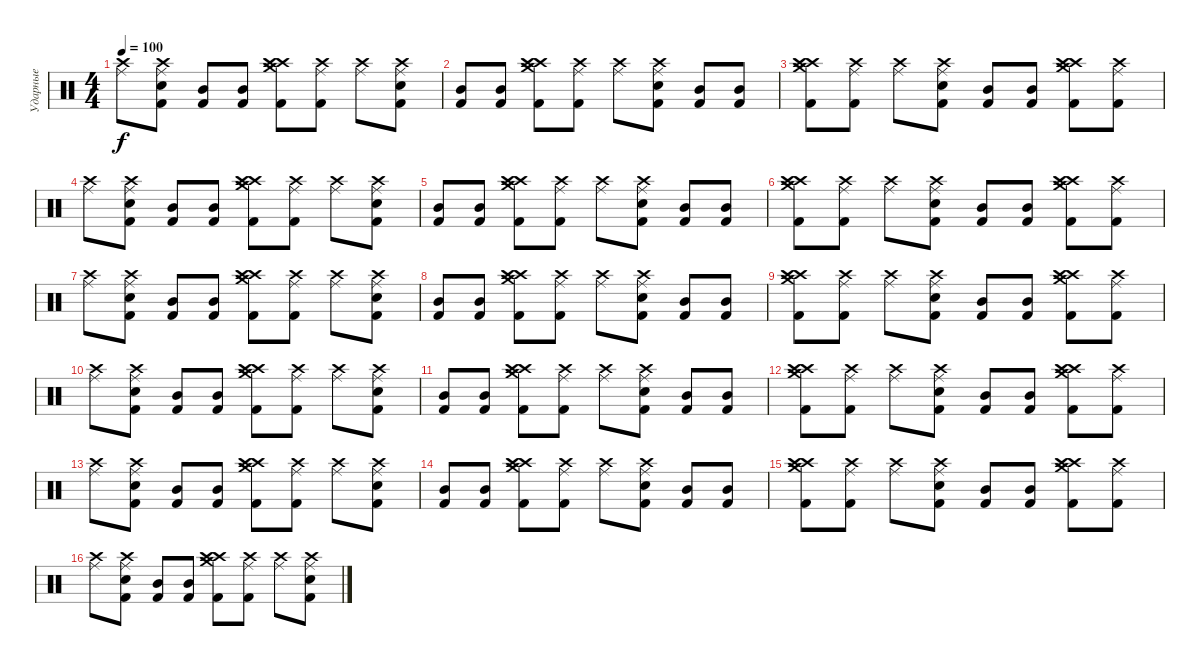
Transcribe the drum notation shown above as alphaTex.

\track ("Ударные" "Ударные") {instrument percussion}
\staff {score}
\articulation defaults
\ts (4 4)
\tempo 100
\clef neutral
\ks c
("Crash high (hit)" "Ride (middle)").8{dy f} ("Crash high (hit)" "Electric Snare (hit)" "Kick (hit) 2" "Ride (middle)").8 ("Kick (hit) 2" "Mid Tom (hit)").8 ("Kick (hit) 2" "Mid Tom (hit)").8 ("Crash high (hit)" "Crash medium (hit)" "Crash high (hit)" "Kick (hit) 2").8 ("Crash high (hit)" "Kick (hit) 2" "Ride (middle)").8 ("Crash high (hit)" "Ride (middle)").8 ("Crash high (hit)" "Electric Snare (hit)" "Kick (hit) 2" "Ride (middle)").8 |
("Kick (hit) 2" "Mid Tom (hit)").8 ("Kick (hit) 2" "Mid Tom (hit)").8 ("Crash high (hit)" "Crash medium (hit)" "Crash high (hit)" "Kick (hit) 2").8 ("Crash high (hit)" "Kick (hit) 2" "Ride (middle)").8 ("Crash high (hit)" "Ride (middle)").8 ("Crash high (hit)" "Electric Snare (hit)" "Kick (hit) 2" "Ride (middle)").8 ("Kick (hit) 2" "Mid Tom (hit)").8 ("Kick (hit) 2" "Mid Tom (hit)").8 |
("Crash high (hit)" "Crash medium (hit)" "Crash high (hit)" "Kick (hit) 2").8 ("Crash high (hit)" "Kick (hit) 2" "Ride (middle)").8 ("Crash high (hit)" "Ride (middle)").8 ("Crash high (hit)" "Electric Snare (hit)" "Kick (hit) 2" "Ride (middle)").8 ("Kick (hit) 2" "Mid Tom (hit)").8 ("Kick (hit) 2" "Mid Tom (hit)").8 ("Crash high (hit)" "Crash medium (hit)" "Crash high (hit)" "Kick (hit) 2").8 ("Crash high (hit)" "Kick (hit) 2" "Ride (middle)").8 |
("Crash high (hit)" "Ride (middle)").8 ("Crash high (hit)" "Electric Snare (hit)" "Kick (hit) 2" "Ride (middle)").8 ("Kick (hit) 2" "Mid Tom (hit)").8 ("Kick (hit) 2" "Mid Tom (hit)").8 ("Crash high (hit)" "Crash medium (hit)" "Crash high (hit)" "Kick (hit) 2").8 ("Crash high (hit)" "Kick (hit) 2" "Ride (middle)").8 ("Crash high (hit)" "Ride (middle)").8 ("Crash high (hit)" "Electric Snare (hit)" "Kick (hit) 2" "Ride (middle)").8 |
("Kick (hit) 2" "Mid Tom (hit)").8 ("Kick (hit) 2" "Mid Tom (hit)").8 ("Crash high (hit)" "Crash medium (hit)" "Crash high (hit)" "Kick (hit) 2").8 ("Crash high (hit)" "Kick (hit) 2" "Ride (middle)").8 ("Crash high (hit)" "Ride (middle)").8 ("Crash high (hit)" "Electric Snare (hit)" "Kick (hit) 2" "Ride (middle)").8 ("Kick (hit) 2" "Mid Tom (hit)").8 ("Kick (hit) 2" "Mid Tom (hit)").8 |
("Crash high (hit)" "Crash medium (hit)" "Crash high (hit)" "Kick (hit) 2").8 ("Crash high (hit)" "Kick (hit) 2" "Ride (middle)").8 ("Crash high (hit)" "Ride (middle)").8 ("Crash high (hit)" "Electric Snare (hit)" "Kick (hit) 2" "Ride (middle)").8 ("Kick (hit) 2" "Mid Tom (hit)").8 ("Kick (hit) 2" "Mid Tom (hit)").8 ("Crash high (hit)" "Crash medium (hit)" "Crash high (hit)" "Kick (hit) 2").8 ("Crash high (hit)" "Kick (hit) 2" "Ride (middle)").8 |
("Crash high (hit)" "Ride (middle)").8 ("Crash high (hit)" "Electric Snare (hit)" "Kick (hit) 2" "Ride (middle)").8 ("Kick (hit) 2" "Mid Tom (hit)").8 ("Kick (hit) 2" "Mid Tom (hit)").8 ("Crash high (hit)" "Crash medium (hit)" "Crash high (hit)" "Kick (hit) 2").8 ("Crash high (hit)" "Kick (hit) 2" "Ride (middle)").8 ("Crash high (hit)" "Ride (middle)").8 ("Crash high (hit)" "Electric Snare (hit)" "Kick (hit) 2" "Ride (middle)").8 |
("Kick (hit) 2" "Mid Tom (hit)").8 ("Kick (hit) 2" "Mid Tom (hit)").8 ("Crash high (hit)" "Crash medium (hit)" "Crash high (hit)" "Kick (hit) 2").8 ("Crash high (hit)" "Kick (hit) 2" "Ride (middle)").8 ("Crash high (hit)" "Ride (middle)").8 ("Crash high (hit)" "Electric Snare (hit)" "Kick (hit) 2" "Ride (middle)").8 ("Kick (hit) 2" "Mid Tom (hit)").8 ("Kick (hit) 2" "Mid Tom (hit)").8 |
("Crash high (hit)" "Crash medium (hit)" "Crash high (hit)" "Kick (hit) 2").8 ("Crash high (hit)" "Kick (hit) 2" "Ride (middle)").8 ("Crash high (hit)" "Ride (middle)").8 ("Crash high (hit)" "Electric Snare (hit)" "Kick (hit) 2" "Ride (middle)").8 ("Kick (hit) 2" "Mid Tom (hit)").8 ("Kick (hit) 2" "Mid Tom (hit)").8 ("Crash high (hit)" "Crash medium (hit)" "Crash high (hit)" "Kick (hit) 2").8 ("Crash high (hit)" "Kick (hit) 2" "Ride (middle)").8 |
("Crash high (hit)" "Ride (middle)").8 ("Crash high (hit)" "Electric Snare (hit)" "Kick (hit) 2" "Ride (middle)").8 ("Kick (hit) 2" "Mid Tom (hit)").8 ("Kick (hit) 2" "Mid Tom (hit)").8 ("Crash high (hit)" "Crash medium (hit)" "Crash high (hit)" "Kick (hit) 2").8 ("Crash high (hit)" "Kick (hit) 2" "Ride (middle)").8 ("Crash high (hit)" "Ride (middle)").8 ("Crash high (hit)" "Electric Snare (hit)" "Kick (hit) 2" "Ride (middle)").8 |
("Kick (hit) 2" "Mid Tom (hit)").8 ("Kick (hit) 2" "Mid Tom (hit)").8 ("Crash high (hit)" "Crash medium (hit)" "Crash high (hit)" "Kick (hit) 2").8 ("Crash high (hit)" "Kick (hit) 2" "Ride (middle)").8 ("Crash high (hit)" "Ride (middle)").8 ("Crash high (hit)" "Electric Snare (hit)" "Kick (hit) 2" "Ride (middle)").8 ("Kick (hit) 2" "Mid Tom (hit)").8 ("Kick (hit) 2" "Mid Tom (hit)").8 |
("Crash high (hit)" "Crash medium (hit)" "Crash high (hit)" "Kick (hit) 2").8 ("Crash high (hit)" "Kick (hit) 2" "Ride (middle)").8 ("Crash high (hit)" "Ride (middle)").8 ("Crash high (hit)" "Electric Snare (hit)" "Kick (hit) 2" "Ride (middle)").8 ("Kick (hit) 2" "Mid Tom (hit)").8 ("Kick (hit) 2" "Mid Tom (hit)").8 ("Crash high (hit)" "Crash medium (hit)" "Crash high (hit)" "Kick (hit) 2").8 ("Crash high (hit)" "Kick (hit) 2" "Ride (middle)").8 |
("Crash high (hit)" "Ride (middle)").8 ("Crash high (hit)" "Electric Snare (hit)" "Kick (hit) 2" "Ride (middle)").8 ("Kick (hit) 2" "Mid Tom (hit)").8 ("Kick (hit) 2" "Mid Tom (hit)").8 ("Crash high (hit)" "Crash medium (hit)" "Crash high (hit)" "Kick (hit) 2").8 ("Crash high (hit)" "Kick (hit) 2" "Ride (middle)").8 ("Crash high (hit)" "Ride (middle)").8 ("Crash high (hit)" "Electric Snare (hit)" "Kick (hit) 2" "Ride (middle)").8 |
("Kick (hit) 2" "Mid Tom (hit)").8 ("Kick (hit) 2" "Mid Tom (hit)").8 ("Crash high (hit)" "Crash medium (hit)" "Crash high (hit)" "Kick (hit) 2").8 ("Crash high (hit)" "Kick (hit) 2" "Ride (middle)").8 ("Crash high (hit)" "Ride (middle)").8 ("Crash high (hit)" "Electric Snare (hit)" "Kick (hit) 2" "Ride (middle)").8 ("Kick (hit) 2" "Mid Tom (hit)").8 ("Kick (hit) 2" "Mid Tom (hit)").8 |
("Crash high (hit)" "Crash medium (hit)" "Crash high (hit)" "Kick (hit) 2").8 ("Crash high (hit)" "Kick (hit) 2" "Ride (middle)").8 ("Crash high (hit)" "Ride (middle)").8 ("Crash high (hit)" "Electric Snare (hit)" "Kick (hit) 2" "Ride (middle)").8 ("Kick (hit) 2" "Mid Tom (hit)").8 ("Kick (hit) 2" "Mid Tom (hit)").8 ("Crash high (hit)" "Crash medium (hit)" "Crash high (hit)" "Kick (hit) 2").8 ("Crash high (hit)" "Kick (hit) 2" "Ride (middle)").8 |
("Crash high (hit)" "Ride (middle)").8 ("Crash high (hit)" "Electric Snare (hit)" "Kick (hit) 2" "Ride (middle)").8 ("Kick (hit) 2" "Mid Tom (hit)").8 ("Kick (hit) 2" "Mid Tom (hit)").8 ("Crash high (hit)" "Crash medium (hit)" "Crash high (hit)" "Kick (hit) 2").8 ("Crash high (hit)" "Kick (hit) 2" "Ride (middle)").8 ("Crash high (hit)" "Ride (middle)").8 ("Crash high (hit)" "Electric Snare (hit)" "Kick (hit) 2" "Ride (middle)").8
